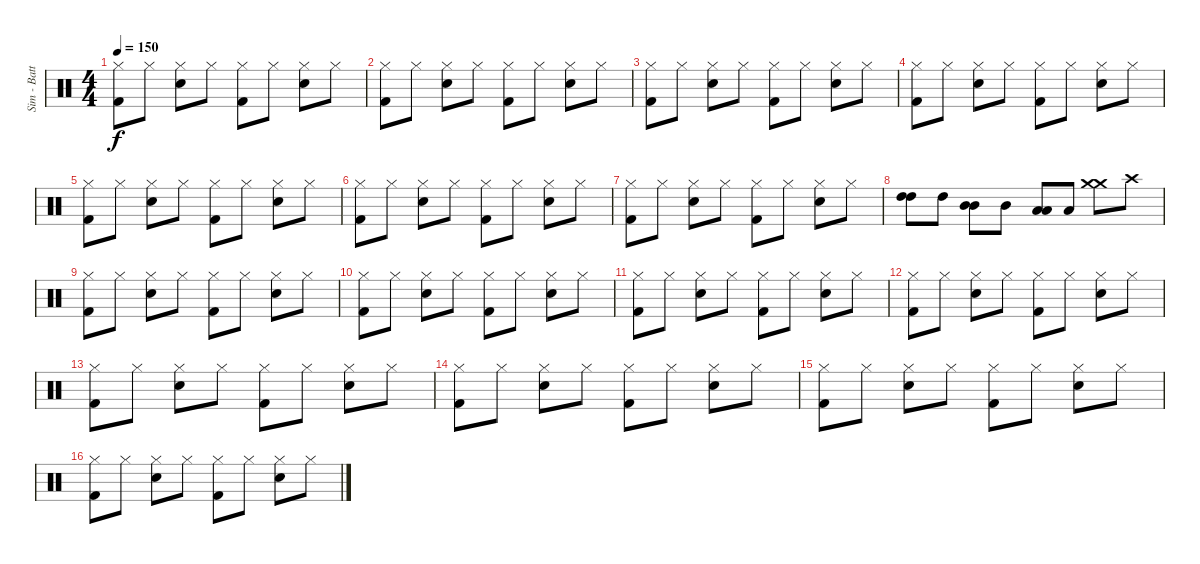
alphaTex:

\track ("Sim - Batterie-" "Sim - Batt") {instrument percussion}
\staff {score}
\articulation defaults
\ts (4 4)
\tempo 150
\clef neutral
\ks c
("Hi-Hat (closed)" "Kick (hit) 2").8{dy f} "Hi-Hat (closed)".8 ("Hi-Hat (closed)" "Snare (hit) 2").8 "Hi-Hat (closed)".8 ("Hi-Hat (closed)" "Kick (hit) 2").8 "Hi-Hat (closed)".8 ("Hi-Hat (closed)" "Snare (hit) 2").8 "Hi-Hat (closed)".8 |
("Hi-Hat (closed)" "Kick (hit) 2").8 "Hi-Hat (closed)".8 ("Hi-Hat (closed)" "Snare (hit) 2").8 "Hi-Hat (closed)".8 ("Hi-Hat (closed)" "Kick (hit) 2").8 "Hi-Hat (closed)".8 ("Hi-Hat (closed)" "Snare (hit) 2").8 "Hi-Hat (closed)".8 |
("Hi-Hat (closed)" "Kick (hit) 2").8 "Hi-Hat (closed)".8 ("Hi-Hat (closed)" "Snare (hit) 2").8 "Hi-Hat (closed)".8 ("Hi-Hat (closed)" "Kick (hit) 2").8 "Hi-Hat (closed)".8 ("Hi-Hat (closed)" "Snare (hit) 2").8 "Hi-Hat (closed)".8 |
("Hi-Hat (closed)" "Kick (hit) 2").8 "Hi-Hat (closed)".8 ("Hi-Hat (closed)" "Snare (hit) 2").8 "Hi-Hat (closed)".8 ("Hi-Hat (closed)" "Kick (hit) 2").8 "Hi-Hat (closed)".8 ("Hi-Hat (closed)" "Snare (hit) 2").8 "Hi-Hat (closed)".8 |
("Hi-Hat (closed)" "Kick (hit) 2").8 "Hi-Hat (closed)".8 ("Hi-Hat (closed)" "Snare (hit) 2").8 "Hi-Hat (closed)".8 ("Hi-Hat (closed)" "Kick (hit) 2").8 "Hi-Hat (closed)".8 ("Hi-Hat (closed)" "Snare (hit) 2").8 "Hi-Hat (closed)".8 |
("Hi-Hat (closed)" "Kick (hit) 2").8 "Hi-Hat (closed)".8 ("Hi-Hat (closed)" "Snare (hit) 2").8 "Hi-Hat (closed)".8 ("Hi-Hat (closed)" "Kick (hit) 2").8 "Hi-Hat (closed)".8 ("Hi-Hat (closed)" "Snare (hit) 2").8 "Hi-Hat (closed)".8 |
("Hi-Hat (closed)" "Kick (hit) 2").8 "Hi-Hat (closed)".8 ("Hi-Hat (closed)" "Snare (hit) 2").8 "Hi-Hat (closed)".8 ("Hi-Hat (closed)" "Kick (hit) 2").8 "Hi-Hat (closed)".8 ("Hi-Hat (closed)" "Snare (hit) 2").8 "Hi-Hat (closed)".8 |
("High Tom (hit)" "High Tom (hit)").8 "High Tom (hit)".8 ("Mid Tom (hit)" "Mid Tom (hit)").8 "Mid Tom (hit)".8 ("Low Tom (hit)" "Low Tom (hit)").8 "Low Floor Tom (hit)".8 ("Crash medium (hit)" "Crash medium (hit)").8 "Crash high (hit)".8 |
("Hi-Hat (closed)" "Kick (hit) 2").8 "Hi-Hat (closed)".8 ("Hi-Hat (closed)" "Snare (hit) 2").8 "Hi-Hat (closed)".8 ("Hi-Hat (closed)" "Kick (hit) 2").8 "Hi-Hat (closed)".8 ("Hi-Hat (closed)" "Snare (hit) 2").8 "Hi-Hat (closed)".8 |
("Hi-Hat (closed)" "Kick (hit) 2").8 "Hi-Hat (closed)".8 ("Hi-Hat (closed)" "Snare (hit) 2").8 "Hi-Hat (closed)".8 ("Hi-Hat (closed)" "Kick (hit) 2").8 "Hi-Hat (closed)".8 ("Hi-Hat (closed)" "Snare (hit) 2").8 "Hi-Hat (closed)".8 |
("Hi-Hat (closed)" "Kick (hit) 2").8 "Hi-Hat (closed)".8 ("Hi-Hat (closed)" "Snare (hit) 2").8 "Hi-Hat (closed)".8 ("Hi-Hat (closed)" "Kick (hit) 2").8 "Hi-Hat (closed)".8 ("Hi-Hat (closed)" "Snare (hit) 2").8 "Hi-Hat (closed)".8 |
("Hi-Hat (closed)" "Kick (hit) 2").8 "Hi-Hat (closed)".8 ("Hi-Hat (closed)" "Snare (hit) 2").8 "Hi-Hat (closed)".8 ("Hi-Hat (closed)" "Kick (hit) 2").8 "Hi-Hat (closed)".8 ("Hi-Hat (closed)" "Snare (hit) 2").8 "Hi-Hat (closed)".8 |
("Hi-Hat (closed)" "Kick (hit) 2").8 "Hi-Hat (closed)".8 ("Hi-Hat (closed)" "Snare (hit) 2").8 "Hi-Hat (closed)".8 ("Hi-Hat (closed)" "Kick (hit) 2").8 "Hi-Hat (closed)".8 ("Hi-Hat (closed)" "Snare (hit) 2").8 "Hi-Hat (closed)".8 |
("Hi-Hat (closed)" "Kick (hit) 2").8 "Hi-Hat (closed)".8 ("Hi-Hat (closed)" "Snare (hit) 2").8 "Hi-Hat (closed)".8 ("Hi-Hat (closed)" "Kick (hit) 2").8 "Hi-Hat (closed)".8 ("Hi-Hat (closed)" "Snare (hit) 2").8 "Hi-Hat (closed)".8 |
("Hi-Hat (closed)" "Kick (hit) 2").8 "Hi-Hat (closed)".8 ("Hi-Hat (closed)" "Snare (hit) 2").8 "Hi-Hat (closed)".8 ("Hi-Hat (closed)" "Kick (hit) 2").8 "Hi-Hat (closed)".8 ("Hi-Hat (closed)" "Snare (hit) 2").8 "Hi-Hat (closed)".8 |
("Hi-Hat (closed)" "Kick (hit) 2").8 "Hi-Hat (closed)".8 ("Hi-Hat (closed)" "Snare (hit) 2").8 "Hi-Hat (closed)".8 ("Hi-Hat (closed)" "Kick (hit) 2").8 "Hi-Hat (closed)".8 ("Hi-Hat (closed)" "Snare (hit) 2").8 "Hi-Hat (closed)".8
